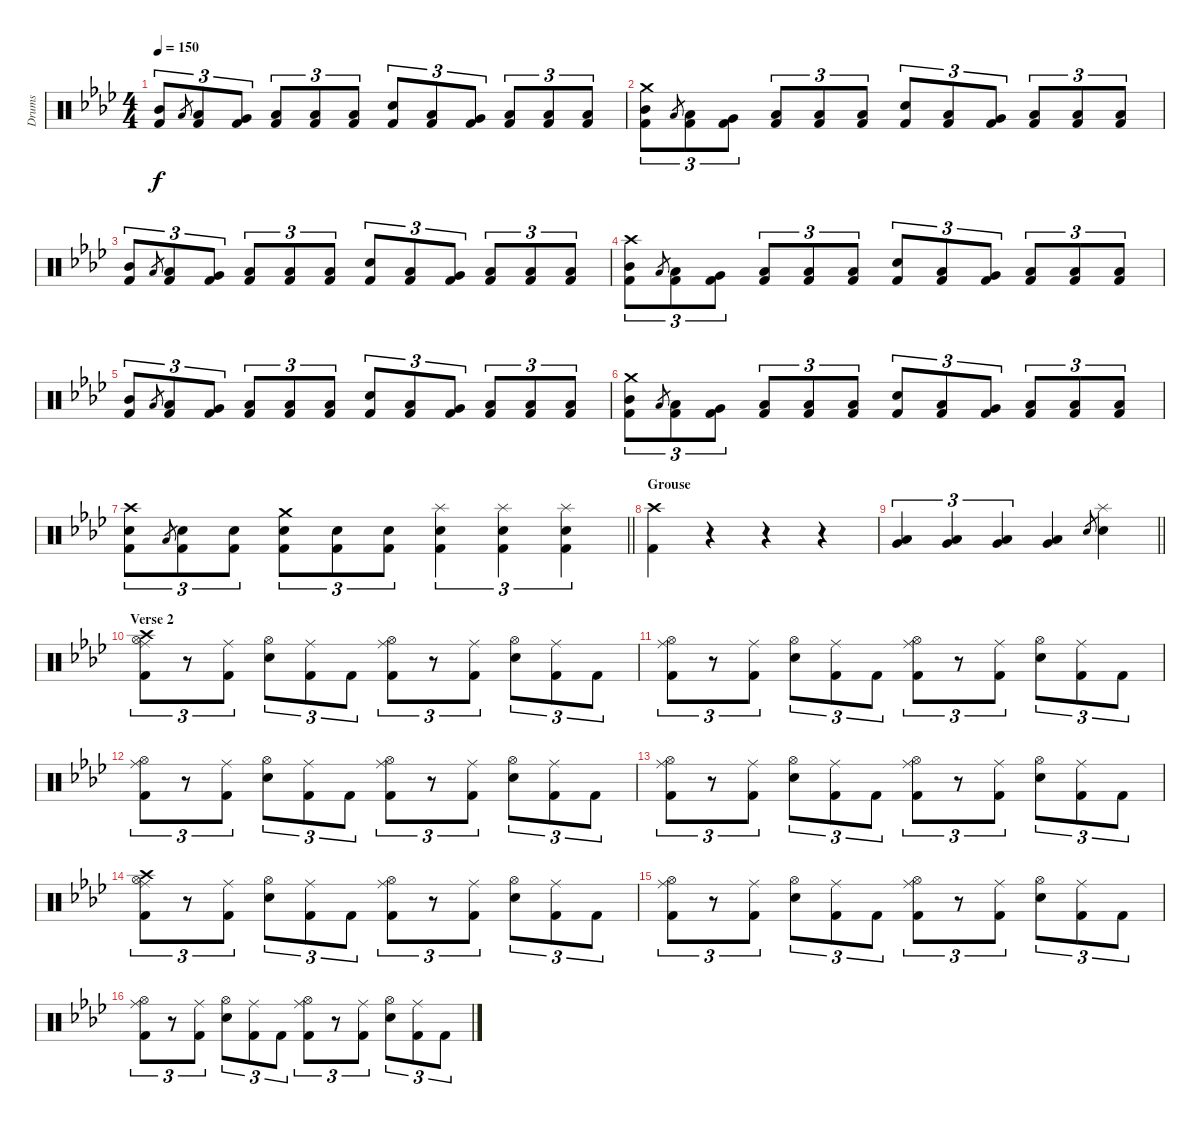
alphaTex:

\track ("Drums" "Drums") {instrument percussion}
\staff {score}
\articulation defaults
\ts (4 4)
\tempo 150
\clef neutral
\ks fminor
("Mid Tom (hit)" "Kick (hit) 2").8{tu (3 2) dy f} "Low Tom (hit)".8{gr} ("Low Tom (hit)" "Kick (hit) 2").8{tu (3 2)} ("Very Low Tom (hit)" "Kick (hit) 2").8{tu (3 2)} ("Low Floor Tom (hit)" "Kick (hit) 2").8{tu (3 2)} ("Low Floor Tom (hit)" "Kick (hit) 2").8{tu (3 2)} ("Low Floor Tom (hit)" "Kick (hit) 2").8{tu (3 2)} ("Snare (hit) 2" "Kick (hit) 2").8{tu (3 2)} ("Low Tom (hit)" "Kick (hit) 2").8{tu (3 2)} ("Very Low Tom (hit)" "Kick (hit) 2").8{tu (3 2)} ("Low Floor Tom (hit)" "Kick (hit) 2").8{tu (3 2)} ("Low Floor Tom (hit)" "Kick (hit) 2").8{tu (3 2)} ("Low Floor Tom (hit)" "Kick (hit) 2").8{tu (3 2)} |
("Crash medium (hit)" "Mid Tom (hit)" "Kick (hit) 2").8{tu (3 2)} "Low Tom (hit)".8{gr} ("Low Tom (hit)" "Kick (hit) 2").8{tu (3 2)} ("Very Low Tom (hit)" "Kick (hit) 2").8{tu (3 2)} ("Low Floor Tom (hit)" "Kick (hit) 2").8{tu (3 2)} ("Low Floor Tom (hit)" "Kick (hit) 2").8{tu (3 2)} ("Low Floor Tom (hit)" "Kick (hit) 2").8{tu (3 2)} ("Snare (hit) 2" "Kick (hit) 2").8{tu (3 2)} ("Low Tom (hit)" "Kick (hit) 2").8{tu (3 2)} ("Very Low Tom (hit)" "Kick (hit) 2").8{tu (3 2)} ("Low Floor Tom (hit)" "Kick (hit) 2").8{tu (3 2)} ("Low Floor Tom (hit)" "Kick (hit) 2").8{tu (3 2)} ("Low Floor Tom (hit)" "Kick (hit) 2").8{tu (3 2)} |
("Mid Tom (hit)" "Kick (hit) 2").8{tu (3 2)} "Low Tom (hit)".8{gr} ("Low Tom (hit)" "Kick (hit) 2").8{tu (3 2)} ("Very Low Tom (hit)" "Kick (hit) 2").8{tu (3 2)} ("Low Floor Tom (hit)" "Kick (hit) 2").8{tu (3 2)} ("Low Floor Tom (hit)" "Kick (hit) 2").8{tu (3 2)} ("Low Floor Tom (hit)" "Kick (hit) 2").8{tu (3 2)} ("Snare (hit) 2" "Kick (hit) 2").8{tu (3 2)} ("Low Tom (hit)" "Kick (hit) 2").8{tu (3 2)} ("Very Low Tom (hit)" "Kick (hit) 2").8{tu (3 2)} ("Low Floor Tom (hit)" "Kick (hit) 2").8{tu (3 2)} ("Low Floor Tom (hit)" "Kick (hit) 2").8{tu (3 2)} ("Low Floor Tom (hit)" "Kick (hit) 2").8{tu (3 2)} |
("Crash high (hit)" "Mid Tom (hit)" "Kick (hit) 2").8{tu (3 2)} "Low Tom (hit)".8{gr} ("Low Tom (hit)" "Kick (hit) 2").8{tu (3 2)} ("Very Low Tom (hit)" "Kick (hit) 2").8{tu (3 2)} ("Low Floor Tom (hit)" "Kick (hit) 2").8{tu (3 2)} ("Low Floor Tom (hit)" "Kick (hit) 2").8{tu (3 2)} ("Low Floor Tom (hit)" "Kick (hit) 2").8{tu (3 2)} ("Snare (hit) 2" "Kick (hit) 2").8{tu (3 2)} ("Low Tom (hit)" "Kick (hit) 2").8{tu (3 2)} ("Very Low Tom (hit)" "Kick (hit) 2").8{tu (3 2)} ("Low Floor Tom (hit)" "Kick (hit) 2").8{tu (3 2)} ("Low Floor Tom (hit)" "Kick (hit) 2").8{tu (3 2)} ("Low Floor Tom (hit)" "Kick (hit) 2").8{tu (3 2)} |
("Mid Tom (hit)" "Kick (hit) 2").8{tu (3 2)} "Low Tom (hit)".8{gr} ("Low Tom (hit)" "Kick (hit) 2").8{tu (3 2)} ("Very Low Tom (hit)" "Kick (hit) 2").8{tu (3 2)} ("Low Floor Tom (hit)" "Kick (hit) 2").8{tu (3 2)} ("Low Floor Tom (hit)" "Kick (hit) 2").8{tu (3 2)} ("Low Floor Tom (hit)" "Kick (hit) 2").8{tu (3 2)} ("Snare (hit) 2" "Kick (hit) 2").8{tu (3 2)} ("Low Tom (hit)" "Kick (hit) 2").8{tu (3 2)} ("Very Low Tom (hit)" "Kick (hit) 2").8{tu (3 2)} ("Low Floor Tom (hit)" "Kick (hit) 2").8{tu (3 2)} ("Low Floor Tom (hit)" "Kick (hit) 2").8{tu (3 2)} ("Low Floor Tom (hit)" "Kick (hit) 2").8{tu (3 2)} |
("Crash medium (hit)" "Mid Tom (hit)" "Kick (hit) 2").8{tu (3 2)} "Low Tom (hit)".8{gr} ("Low Tom (hit)" "Kick (hit) 2").8{tu (3 2)} ("Very Low Tom (hit)" "Kick (hit) 2").8{tu (3 2)} ("Low Floor Tom (hit)" "Kick (hit) 2").8{tu (3 2)} ("Low Floor Tom (hit)" "Kick (hit) 2").8{tu (3 2)} ("Low Floor Tom (hit)" "Kick (hit) 2").8{tu (3 2)} ("Snare (hit) 2" "Kick (hit) 2").8{tu (3 2)} ("Low Tom (hit)" "Kick (hit) 2").8{tu (3 2)} ("Very Low Tom (hit)" "Kick (hit) 2").8{tu (3 2)} ("Low Floor Tom (hit)" "Kick (hit) 2").8{tu (3 2)} ("Low Floor Tom (hit)" "Kick (hit) 2").8{tu (3 2)} ("Low Floor Tom (hit)" "Kick (hit) 2").8{tu (3 2)} |
\barLineRight lightlight
("Crash high (hit)" "Snare (hit) 2" "Kick (hit) 2").8{tu (3 2)} "Low Tom (hit)".8{gr} ("Snare (hit) 2" "Kick (hit) 2").8{tu (3 2)} ("Snare (hit) 2" "Kick (hit) 2").8{tu (3 2)} ("Crash medium (hit)" "Snare (hit) 2" "Kick (hit) 2").8{tu (3 2)} ("Snare (hit) 2" "Kick (hit) 2").8{tu (3 2)} ("Snare (hit) 2" "Kick (hit) 2").8{tu (3 2)} ("Splash (hit)" "Snare (hit) 2" "Kick (hit) 2").4{tu (3 2)} ("Splash (hit)" "Snare (hit) 2" "Kick (hit) 2").4{tu (3 2)} ("Splash (hit)" "Snare (hit) 2" "Kick (hit) 2").4{tu (3 2)} |
\section ("" "Grouse")
("Crash high (hit)" "Kick (hit) 2").4 r.4 r.4 r.4 |
\barLineRight lightlight
("Very Low Tom (hit)" "Low Floor Tom (hit)").4{tu (3 2)} ("Very Low Tom (hit)" "Low Floor Tom (hit)").4{tu (3 2)} ("Very Low Tom (hit)" "Low Floor Tom (hit)").4{tu (3 2)} ("Very Low Tom (hit)" "Low Floor Tom (hit)").4 "Snare (hit) 2".8{gr} ("Splash (hit)" "Snare (hit) 2").4 |
\section ("" "Verse 2")
("Crash high (hit)" "Hi-Hat (open)" "Ride (middle)" "Kick (hit) 2").8{tu (3 2)} r.8{tu (3 2)} ("Ride (middle)" "Kick (hit) 2").8{tu (3 2)} ("Hi-Hat (open)" "Snare (hit) 2").8{tu (3 2)} ("Ride (middle)" "Kick (hit) 2").8{tu (3 2)} "Kick (hit) 2".8{tu (3 2)} ("Hi-Hat (open)" "Ride (middle)" "Kick (hit) 2").8{tu (3 2)} r.8{tu (3 2)} ("Ride (middle)" "Kick (hit) 2").8{tu (3 2)} ("Hi-Hat (open)" "Snare (hit) 2").8{tu (3 2)} ("Ride (middle)" "Kick (hit) 2").8{tu (3 2)} "Kick (hit) 2".8{tu (3 2)} |
("Hi-Hat (open)" "Ride (middle)" "Kick (hit) 2").8{tu (3 2)} r.8{tu (3 2)} ("Ride (middle)" "Kick (hit) 2").8{tu (3 2)} ("Hi-Hat (open)" "Snare (hit) 2").8{tu (3 2)} ("Ride (middle)" "Kick (hit) 2").8{tu (3 2)} "Kick (hit) 2".8{tu (3 2)} ("Hi-Hat (open)" "Ride (middle)" "Kick (hit) 2").8{tu (3 2)} r.8{tu (3 2)} ("Ride (middle)" "Kick (hit) 2").8{tu (3 2)} ("Hi-Hat (open)" "Snare (hit) 2").8{tu (3 2)} ("Ride (middle)" "Kick (hit) 2").8{tu (3 2)} "Kick (hit) 2".8{tu (3 2)} |
("Hi-Hat (open)" "Ride (middle)" "Kick (hit) 2").8{tu (3 2)} r.8{tu (3 2)} ("Ride (middle)" "Kick (hit) 2").8{tu (3 2)} ("Hi-Hat (open)" "Snare (hit) 2").8{tu (3 2)} ("Ride (middle)" "Kick (hit) 2").8{tu (3 2)} "Kick (hit) 2".8{tu (3 2)} ("Hi-Hat (open)" "Ride (middle)" "Kick (hit) 2").8{tu (3 2)} r.8{tu (3 2)} ("Ride (middle)" "Kick (hit) 2").8{tu (3 2)} ("Hi-Hat (open)" "Snare (hit) 2").8{tu (3 2)} ("Ride (middle)" "Kick (hit) 2").8{tu (3 2)} "Kick (hit) 2".8{tu (3 2)} |
("Hi-Hat (open)" "Ride (middle)" "Kick (hit) 2").8{tu (3 2)} r.8{tu (3 2)} ("Ride (middle)" "Kick (hit) 2").8{tu (3 2)} ("Hi-Hat (open)" "Snare (hit) 2").8{tu (3 2)} ("Ride (middle)" "Kick (hit) 2").8{tu (3 2)} "Kick (hit) 2".8{tu (3 2)} ("Hi-Hat (open)" "Ride (middle)" "Kick (hit) 2").8{tu (3 2)} r.8{tu (3 2)} ("Ride (middle)" "Kick (hit) 2").8{tu (3 2)} ("Hi-Hat (open)" "Snare (hit) 2").8{tu (3 2)} ("Ride (middle)" "Kick (hit) 2").8{tu (3 2)} "Kick (hit) 2".8{tu (3 2)} |
("Crash high (hit)" "Hi-Hat (open)" "Ride (middle)" "Kick (hit) 2").8{tu (3 2)} r.8{tu (3 2)} ("Ride (middle)" "Kick (hit) 2").8{tu (3 2)} ("Hi-Hat (open)" "Snare (hit) 2").8{tu (3 2)} ("Ride (middle)" "Kick (hit) 2").8{tu (3 2)} "Kick (hit) 2".8{tu (3 2)} ("Hi-Hat (open)" "Ride (middle)" "Kick (hit) 2").8{tu (3 2)} r.8{tu (3 2)} ("Ride (middle)" "Kick (hit) 2").8{tu (3 2)} ("Hi-Hat (open)" "Snare (hit) 2").8{tu (3 2)} ("Ride (middle)" "Kick (hit) 2").8{tu (3 2)} "Kick (hit) 2".8{tu (3 2)} |
("Hi-Hat (open)" "Ride (middle)" "Kick (hit) 2").8{tu (3 2)} r.8{tu (3 2)} ("Ride (middle)" "Kick (hit) 2").8{tu (3 2)} ("Hi-Hat (open)" "Snare (hit) 2").8{tu (3 2)} ("Ride (middle)" "Kick (hit) 2").8{tu (3 2)} "Kick (hit) 2".8{tu (3 2)} ("Hi-Hat (open)" "Ride (middle)" "Kick (hit) 2").8{tu (3 2)} r.8{tu (3 2)} ("Ride (middle)" "Kick (hit) 2").8{tu (3 2)} ("Hi-Hat (open)" "Snare (hit) 2").8{tu (3 2)} ("Ride (middle)" "Kick (hit) 2").8{tu (3 2)} "Kick (hit) 2".8{tu (3 2)} |
("Hi-Hat (open)" "Ride (middle)" "Kick (hit) 2").8{tu (3 2)} r.8{tu (3 2)} ("Ride (middle)" "Kick (hit) 2").8{tu (3 2)} ("Hi-Hat (open)" "Snare (hit) 2").8{tu (3 2)} ("Ride (middle)" "Kick (hit) 2").8{tu (3 2)} "Kick (hit) 2".8{tu (3 2)} ("Hi-Hat (open)" "Ride (middle)" "Kick (hit) 2").8{tu (3 2)} r.8{tu (3 2)} ("Ride (middle)" "Kick (hit) 2").8{tu (3 2)} ("Hi-Hat (open)" "Snare (hit) 2").8{tu (3 2)} ("Ride (middle)" "Kick (hit) 2").8{tu (3 2)} "Kick (hit) 2".8{tu (3 2)}
